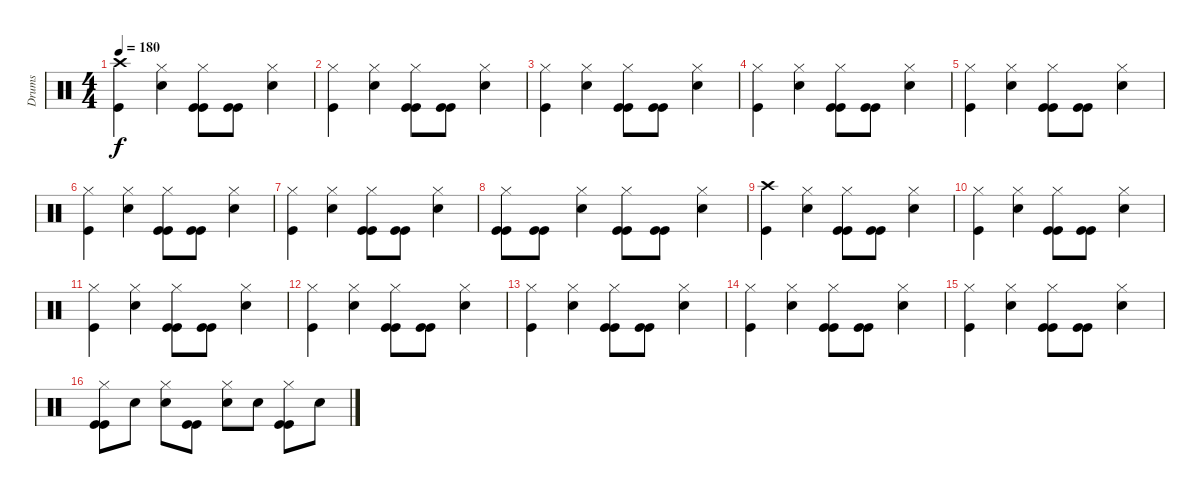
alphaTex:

\track ("Drums" "Drums") {instrument percussion}
\staff {score}
\articulation defaults
\ts (4 4)
\tempo 180
\clef neutral
\ks c
("Crash high (hit)" "Kick (hit)").4{dy f} ("Hi-Hat (closed)" "Snare (hit) 2").4 ("Hi-Hat (closed)" "Kick (hit)" "Kick (hit)").8 ("Kick (hit)" "Kick (hit)").8 ("Hi-Hat (closed)" "Snare (hit) 2").4 |
("Hi-Hat (closed)" "Kick (hit)").4 ("Hi-Hat (closed)" "Snare (hit) 2").4 ("Hi-Hat (closed)" "Kick (hit)" "Kick (hit)").8 ("Kick (hit)" "Kick (hit)").8 ("Hi-Hat (closed)" "Snare (hit) 2").4 |
("Hi-Hat (closed)" "Kick (hit)").4 ("Hi-Hat (closed)" "Snare (hit) 2").4 ("Hi-Hat (closed)" "Kick (hit)" "Kick (hit)").8 ("Kick (hit)" "Kick (hit)").8 ("Hi-Hat (closed)" "Snare (hit) 2").4 |
("Hi-Hat (closed)" "Kick (hit)").4 ("Hi-Hat (closed)" "Snare (hit) 2").4 ("Hi-Hat (closed)" "Kick (hit)" "Kick (hit)").8 ("Kick (hit)" "Kick (hit)").8 ("Hi-Hat (closed)" "Snare (hit) 2").4 |
("Hi-Hat (closed)" "Kick (hit)").4 ("Hi-Hat (closed)" "Snare (hit) 2").4 ("Hi-Hat (closed)" "Kick (hit)" "Kick (hit)").8 ("Kick (hit)" "Kick (hit)").8 ("Hi-Hat (closed)" "Snare (hit) 2").4 |
("Hi-Hat (closed)" "Kick (hit)").4 ("Hi-Hat (closed)" "Snare (hit) 2").4 ("Hi-Hat (closed)" "Kick (hit)" "Kick (hit)").8 ("Kick (hit)" "Kick (hit)").8 ("Hi-Hat (closed)" "Snare (hit) 2").4 |
("Hi-Hat (closed)" "Kick (hit)").4 ("Hi-Hat (closed)" "Snare (hit) 2").4 ("Hi-Hat (closed)" "Kick (hit)" "Kick (hit)").8 ("Kick (hit)" "Kick (hit)").8 ("Hi-Hat (closed)" "Snare (hit) 2").4 |
("Hi-Hat (closed)" "Kick (hit)" "Kick (hit)").8 ("Kick (hit)" "Kick (hit)").8 ("Hi-Hat (closed)" "Snare (hit) 2").4 ("Hi-Hat (closed)" "Kick (hit)" "Kick (hit)").8 ("Kick (hit)" "Kick (hit)").8 ("Hi-Hat (closed)" "Snare (hit) 2").4 |
("Crash high (hit)" "Kick (hit)").4 ("Hi-Hat (closed)" "Snare (hit) 2").4 ("Hi-Hat (closed)" "Kick (hit)" "Kick (hit)").8 ("Kick (hit)" "Kick (hit)").8 ("Hi-Hat (closed)" "Snare (hit) 2").4 |
("Hi-Hat (closed)" "Kick (hit)").4 ("Hi-Hat (closed)" "Snare (hit) 2").4 ("Hi-Hat (closed)" "Kick (hit)" "Kick (hit)").8 ("Kick (hit)" "Kick (hit)").8 ("Hi-Hat (closed)" "Snare (hit) 2").4 |
("Hi-Hat (closed)" "Kick (hit)").4 ("Hi-Hat (closed)" "Snare (hit) 2").4 ("Hi-Hat (closed)" "Kick (hit)" "Kick (hit)").8 ("Kick (hit)" "Kick (hit)").8 ("Hi-Hat (closed)" "Snare (hit) 2").4 |
("Hi-Hat (closed)" "Kick (hit)").4 ("Hi-Hat (closed)" "Snare (hit) 2").4 ("Hi-Hat (closed)" "Kick (hit)" "Kick (hit)").8 ("Kick (hit)" "Kick (hit)").8 ("Hi-Hat (closed)" "Snare (hit) 2").4 |
("Hi-Hat (closed)" "Kick (hit)").4 ("Hi-Hat (closed)" "Snare (hit) 2").4 ("Hi-Hat (closed)" "Kick (hit)" "Kick (hit)").8 ("Kick (hit)" "Kick (hit)").8 ("Hi-Hat (closed)" "Snare (hit) 2").4 |
("Hi-Hat (closed)" "Kick (hit)").4 ("Hi-Hat (closed)" "Snare (hit) 2").4 ("Hi-Hat (closed)" "Kick (hit)" "Kick (hit)").8 ("Kick (hit)" "Kick (hit)").8 ("Hi-Hat (closed)" "Snare (hit) 2").4 |
("Hi-Hat (closed)" "Kick (hit)").4 ("Hi-Hat (closed)" "Snare (hit) 2").4 ("Hi-Hat (closed)" "Kick (hit)" "Kick (hit)").8 ("Kick (hit)" "Kick (hit)").8 ("Hi-Hat (closed)" "Snare (hit) 2").4 |
("Hi-Hat (closed)" "Kick (hit)" "Kick (hit)").8 "Snare (hit) 2".8 ("Hi-Hat (closed)" "Snare (hit) 2").8 ("Kick (hit)" "Kick (hit)").8 ("Hi-Hat (closed)" "Snare (hit) 2").8 "Snare (hit) 2".8 ("Hi-Hat (closed)" "Kick (hit)" "Kick (hit)").8 "Snare (hit) 2".8
